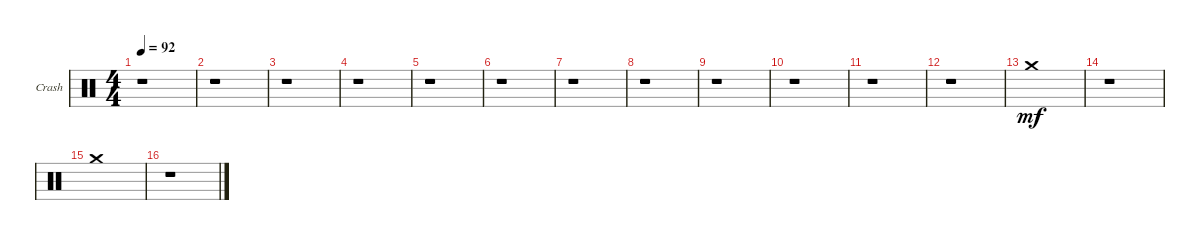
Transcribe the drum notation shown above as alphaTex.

\bracketExtendMode groupsimilarinstruments
\firstSystemTrackNameOrientation horizontal
\otherSystemsTrackNameOrientation horizontal
\track (" Crash" " Crash") {instrument percussion}
\staff {score}
\articulation defaults
\ts (4 4)
\tempo 92
\clef neutral
\ks c
r.1{dy mf} |
r.1 |
r.1 |
r.1 |
r.1 |
r.1 |
r.1 |
r.1 |
r.1 |
r.1 |
r.1 |
r.1 |
"Crash medium (hit)".1 |
r.1 |
"Crash medium (hit)".1 |
r.1
